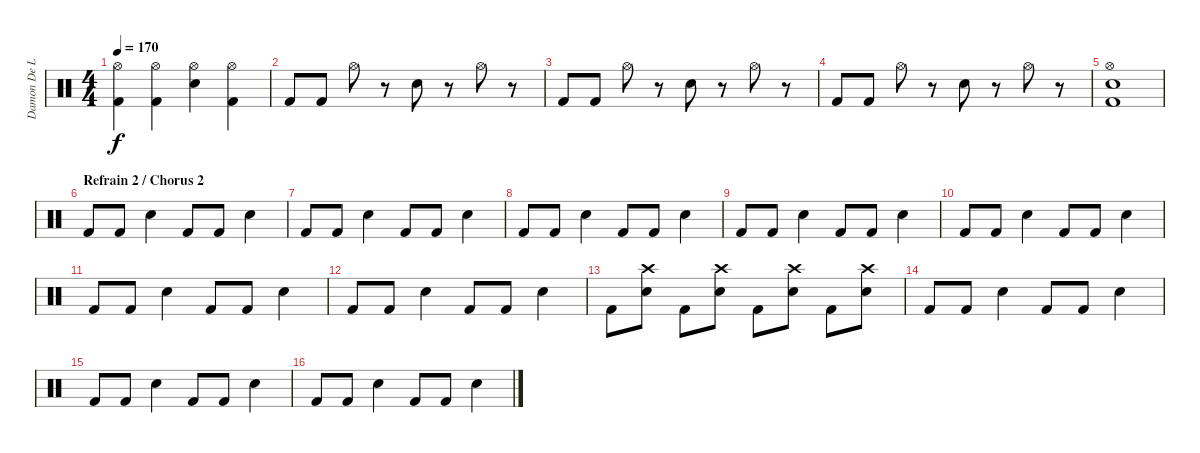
\track ("Damon De La Paz" "Damon De L") {instrument percussion}
\staff {score}
\articulation defaults
\ts (4 4)
\tempo 170
\clef neutral
\ks c
("Hi-Hat (open)" "Kick (hit) 2").4{dy f} ("Hi-Hat (open)" "Kick (hit) 2").4 ("Hi-Hat (open)" "Electric Snare (hit)").4 ("Hi-Hat (open)" "Kick (hit) 2").4 |
"Kick (hit) 2".8 "Kick (hit) 2".8 "Hi-Hat (open)".8 r.8 "Electric Snare (hit)".8 r.8 "Hi-Hat (open)".8 r.8 |
"Kick (hit) 2".8 "Kick (hit) 2".8 "Hi-Hat (open)".8 r.8 "Electric Snare (hit)".8 r.8 "Hi-Hat (open)".8 r.8 |
"Kick (hit) 2".8 "Kick (hit) 2".8 "Hi-Hat (open)".8 r.8 "Electric Snare (hit)".8 r.8 "Hi-Hat (open)".8 r.8 |
("Hi-Hat (open)" "Electric Snare (hit)" "Kick (hit) 2").1 |
\section ("" "Refrain 2 / Chorus 2")
"Kick (hit) 2".8 "Kick (hit) 2".8 "Electric Snare (hit)".4 "Kick (hit) 2".8 "Kick (hit) 2".8 "Electric Snare (hit)".4 |
"Kick (hit) 2".8 "Kick (hit) 2".8 "Electric Snare (hit)".4 "Kick (hit) 2".8 "Kick (hit) 2".8 "Electric Snare (hit)".4 |
"Kick (hit) 2".8 "Kick (hit) 2".8 "Electric Snare (hit)".4 "Kick (hit) 2".8 "Kick (hit) 2".8 "Electric Snare (hit)".4 |
"Kick (hit) 2".8 "Kick (hit) 2".8 "Electric Snare (hit)".4 "Kick (hit) 2".8 "Kick (hit) 2".8 "Electric Snare (hit)".4 |
"Kick (hit) 2".8 "Kick (hit) 2".8 "Electric Snare (hit)".4 "Kick (hit) 2".8 "Kick (hit) 2".8 "Electric Snare (hit)".4 |
"Kick (hit) 2".8 "Kick (hit) 2".8 "Electric Snare (hit)".4 "Kick (hit) 2".8 "Kick (hit) 2".8 "Electric Snare (hit)".4 |
"Kick (hit) 2".8 "Kick (hit) 2".8 "Electric Snare (hit)".4 "Kick (hit) 2".8 "Kick (hit) 2".8 "Electric Snare (hit)".4 |
"Kick (hit) 2".8 ("Crash high (hit)" "Electric Snare (hit)").8 "Kick (hit) 2".8 ("Crash high (hit)" "Electric Snare (hit)").8 "Kick (hit) 2".8 ("Crash high (hit)" "Electric Snare (hit)").8 "Kick (hit) 2".8 ("Crash high (hit)" "Electric Snare (hit)").8 |
"Kick (hit) 2".8 "Kick (hit) 2".8 "Electric Snare (hit)".4 "Kick (hit) 2".8 "Kick (hit) 2".8 "Electric Snare (hit)".4 |
"Kick (hit) 2".8 "Kick (hit) 2".8 "Electric Snare (hit)".4 "Kick (hit) 2".8 "Kick (hit) 2".8 "Electric Snare (hit)".4 |
"Kick (hit) 2".8 "Kick (hit) 2".8 "Electric Snare (hit)".4 "Kick (hit) 2".8 "Kick (hit) 2".8 "Electric Snare (hit)".4
